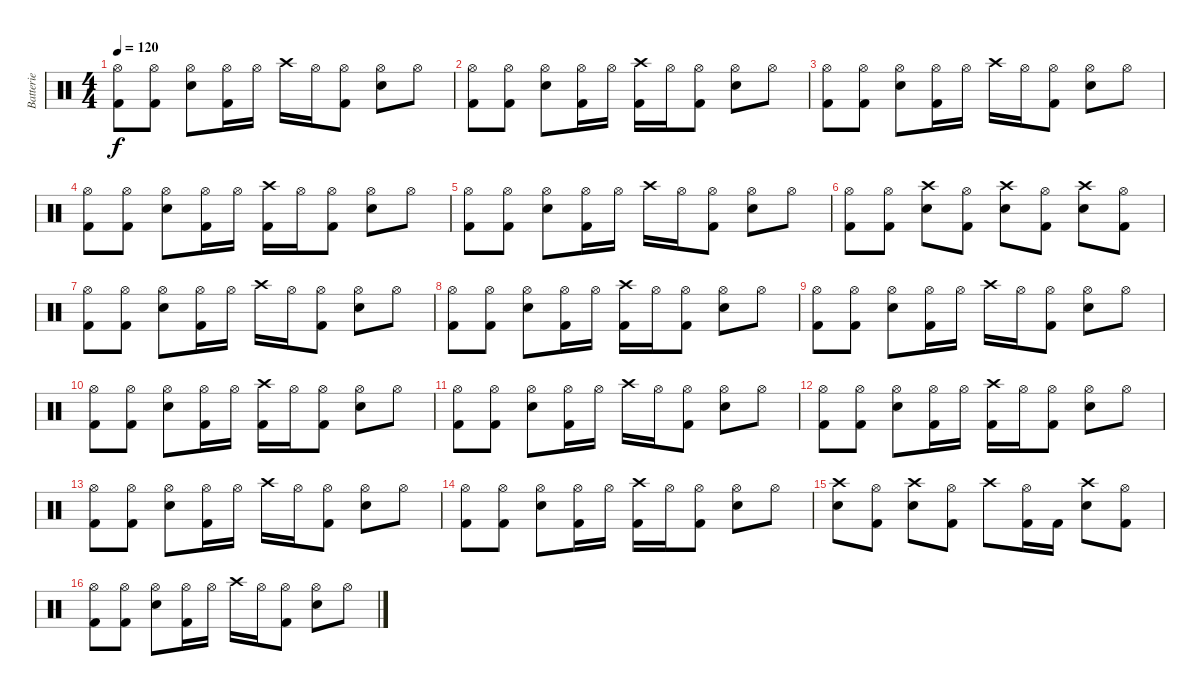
\track ("Batterie" "Batterie") {instrument percussion}
\staff {score}
\articulation defaults
\ts (4 4)
\tempo 120
\clef neutral
\ks c
("Hi-Hat (open)" "Kick (hit) 2").8{dy f} ("Hi-Hat (open)" "Kick (hit) 2").8 ("Hi-Hat (open)" "Snare (hit) 2").8 ("Hi-Hat (open)" "Kick (hit) 2").16 "Hi-Hat (open)".16 "Crash high (hit)".16 "Hi-Hat (open)".16 ("Hi-Hat (open)" "Kick (hit) 2").8 ("Hi-Hat (open)" "Snare (hit) 2").8 "Hi-Hat (open)".8 |
("Hi-Hat (open)" "Kick (hit) 2").8 ("Hi-Hat (open)" "Kick (hit) 2").8 ("Hi-Hat (open)" "Snare (hit) 2").8 ("Hi-Hat (open)" "Kick (hit) 2").16 "Hi-Hat (open)".16 ("Crash high (hit)" "Kick (hit) 2").16 "Hi-Hat (open)".16 ("Hi-Hat (open)" "Kick (hit) 2").8 ("Hi-Hat (open)" "Snare (hit) 2").8 "Hi-Hat (open)".8 |
("Hi-Hat (open)" "Kick (hit) 2").8 ("Hi-Hat (open)" "Kick (hit) 2").8 ("Hi-Hat (open)" "Snare (hit) 2").8 ("Hi-Hat (open)" "Kick (hit) 2").16 "Hi-Hat (open)".16 "Crash high (hit)".16 "Hi-Hat (open)".16 ("Hi-Hat (open)" "Kick (hit) 2").8 ("Hi-Hat (open)" "Snare (hit) 2").8 "Hi-Hat (open)".8 |
("Hi-Hat (open)" "Kick (hit) 2").8 ("Hi-Hat (open)" "Kick (hit) 2").8 ("Hi-Hat (open)" "Snare (hit) 2").8 ("Hi-Hat (open)" "Kick (hit) 2").16 "Hi-Hat (open)".16 ("Crash high (hit)" "Kick (hit) 2").16 "Hi-Hat (open)".16 ("Hi-Hat (open)" "Kick (hit) 2").8 ("Hi-Hat (open)" "Snare (hit) 2").8 "Hi-Hat (open)".8 |
("Hi-Hat (open)" "Kick (hit) 2").8 ("Hi-Hat (open)" "Kick (hit) 2").8 ("Hi-Hat (open)" "Snare (hit) 2").8 ("Hi-Hat (open)" "Kick (hit) 2").16 "Hi-Hat (open)".16 "Crash high (hit)".16 "Hi-Hat (open)".16 ("Hi-Hat (open)" "Kick (hit) 2").8 ("Hi-Hat (open)" "Snare (hit) 2").8 "Hi-Hat (open)".8 |
("Hi-Hat (open)" "Kick (hit) 2").8 ("Hi-Hat (open)" "Kick (hit) 2").8 ("Crash high (hit)" "Snare (hit) 2").8 ("Hi-Hat (open)" "Kick (hit) 2").8 ("Crash high (hit)" "Snare (hit) 2").8 ("Hi-Hat (open)" "Kick (hit) 2").8 ("Crash high (hit)" "Snare (hit) 2").8 ("Hi-Hat (open)" "Kick (hit) 2").8 |
("Hi-Hat (open)" "Kick (hit) 2").8 ("Hi-Hat (open)" "Kick (hit) 2").8 ("Hi-Hat (open)" "Snare (hit) 2").8 ("Hi-Hat (open)" "Kick (hit) 2").16 "Hi-Hat (open)".16 "Crash high (hit)".16 "Hi-Hat (open)".16 ("Hi-Hat (open)" "Kick (hit) 2").8 ("Hi-Hat (open)" "Snare (hit) 2").8 "Hi-Hat (open)".8 |
("Hi-Hat (open)" "Kick (hit) 2").8 ("Hi-Hat (open)" "Kick (hit) 2").8 ("Hi-Hat (open)" "Snare (hit) 2").8 ("Hi-Hat (open)" "Kick (hit) 2").16 "Hi-Hat (open)".16 ("Crash high (hit)" "Kick (hit) 2").16 "Hi-Hat (open)".16 ("Hi-Hat (open)" "Kick (hit) 2").8 ("Hi-Hat (open)" "Snare (hit) 2").8 "Hi-Hat (open)".8 |
("Hi-Hat (open)" "Kick (hit) 2").8 ("Hi-Hat (open)" "Kick (hit) 2").8 ("Hi-Hat (open)" "Snare (hit) 2").8 ("Hi-Hat (open)" "Kick (hit) 2").16 "Hi-Hat (open)".16 "Crash high (hit)".16 "Hi-Hat (open)".16 ("Hi-Hat (open)" "Kick (hit) 2").8 ("Hi-Hat (open)" "Snare (hit) 2").8 "Hi-Hat (open)".8 |
("Hi-Hat (open)" "Kick (hit) 2").8 ("Hi-Hat (open)" "Kick (hit) 2").8 ("Hi-Hat (open)" "Snare (hit) 2").8 ("Hi-Hat (open)" "Kick (hit) 2").16 "Hi-Hat (open)".16 ("Crash high (hit)" "Kick (hit) 2").16 "Hi-Hat (open)".16 ("Hi-Hat (open)" "Kick (hit) 2").8 ("Hi-Hat (open)" "Snare (hit) 2").8 "Hi-Hat (open)".8 |
("Hi-Hat (open)" "Kick (hit) 2").8 ("Hi-Hat (open)" "Kick (hit) 2").8 ("Hi-Hat (open)" "Snare (hit) 2").8 ("Hi-Hat (open)" "Kick (hit) 2").16 "Hi-Hat (open)".16 "Crash high (hit)".16 "Hi-Hat (open)".16 ("Hi-Hat (open)" "Kick (hit) 2").8 ("Hi-Hat (open)" "Snare (hit) 2").8 "Hi-Hat (open)".8 |
("Hi-Hat (open)" "Kick (hit) 2").8 ("Hi-Hat (open)" "Kick (hit) 2").8 ("Hi-Hat (open)" "Snare (hit) 2").8 ("Hi-Hat (open)" "Kick (hit) 2").16 "Hi-Hat (open)".16 ("Crash high (hit)" "Kick (hit) 2").16 "Hi-Hat (open)".16 ("Hi-Hat (open)" "Kick (hit) 2").8 ("Hi-Hat (open)" "Snare (hit) 2").8 "Hi-Hat (open)".8 |
("Hi-Hat (open)" "Kick (hit) 2").8 ("Hi-Hat (open)" "Kick (hit) 2").8 ("Hi-Hat (open)" "Snare (hit) 2").8 ("Hi-Hat (open)" "Kick (hit) 2").16 "Hi-Hat (open)".16 "Crash high (hit)".16 "Hi-Hat (open)".16 ("Hi-Hat (open)" "Kick (hit) 2").8 ("Hi-Hat (open)" "Snare (hit) 2").8 "Hi-Hat (open)".8 |
("Hi-Hat (open)" "Kick (hit) 2").8 ("Hi-Hat (open)" "Kick (hit) 2").8 ("Hi-Hat (open)" "Snare (hit) 2").8 ("Hi-Hat (open)" "Kick (hit) 2").16 "Hi-Hat (open)".16 ("Crash high (hit)" "Kick (hit) 2").16 "Hi-Hat (open)".16 ("Hi-Hat (open)" "Kick (hit) 2").8 ("Hi-Hat (open)" "Snare (hit) 2").8 "Hi-Hat (open)".8 |
("Crash high (hit)" "Snare (hit) 2").8 ("Hi-Hat (open)" "Kick (hit) 2").8 ("Crash high (hit)" "Snare (hit) 2").8 ("Hi-Hat (open)" "Kick (hit) 2").8 "Crash high (hit)".8 ("Hi-Hat (open)" "Kick (hit) 2").16 "Kick (hit) 2".16 ("Crash high (hit)" "Snare (hit) 2").8 ("Hi-Hat (open)" "Kick (hit) 2").8 |
("Hi-Hat (open)" "Kick (hit) 2").8 ("Hi-Hat (open)" "Kick (hit) 2").8 ("Hi-Hat (open)" "Snare (hit) 2").8 ("Hi-Hat (open)" "Kick (hit) 2").16 "Hi-Hat (open)".16 "Crash high (hit)".16 "Hi-Hat (open)".16 ("Hi-Hat (open)" "Kick (hit) 2").8 ("Hi-Hat (open)" "Snare (hit) 2").8 "Hi-Hat (open)".8
